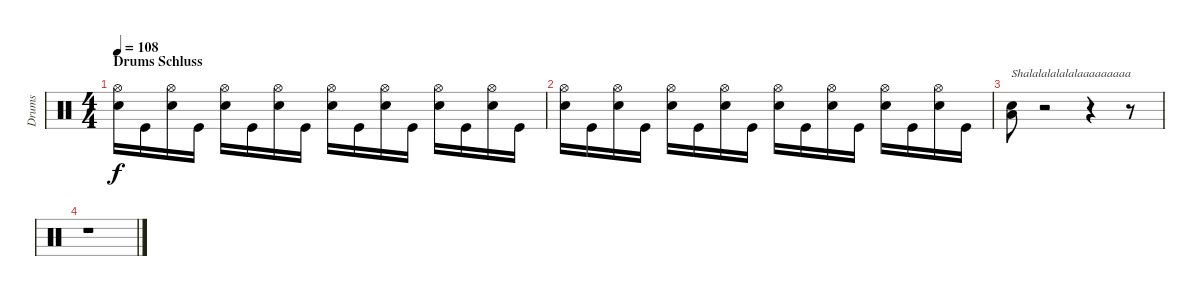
\track ("Drums" "Drums") {instrument percussion}
\staff {score}
\articulation defaults
\ts (4 4)
\section ("" "Drums Schluss")
\tempo 108
\clef neutral
\ks c
("Hi-Hat (open)" "Snare (hit) 2").16{dy f} "Kick (hit)".16 ("Hi-Hat (open)" "Snare (hit) 2").16 "Kick (hit)".16 ("Hi-Hat (open)" "Snare (hit) 2").16 "Kick (hit)".16 ("Hi-Hat (open)" "Snare (hit) 2").16 "Kick (hit)".16 ("Hi-Hat (open)" "Snare (hit) 2").16 "Kick (hit)".16 ("Hi-Hat (open)" "Snare (hit) 2").16 "Kick (hit)".16 ("Hi-Hat (open)" "Snare (hit) 2").16 "Kick (hit)".16 ("Hi-Hat (open)" "Snare (hit) 2").16 "Kick (hit)".16 |
("Hi-Hat (open)" "Snare (hit) 2").16 "Kick (hit)".16 ("Hi-Hat (open)" "Snare (hit) 2").16 "Kick (hit)".16 ("Hi-Hat (open)" "Snare (hit) 2").16 "Kick (hit)".16 ("Hi-Hat (open)" "Snare (hit) 2").16 "Kick (hit)".16 ("Hi-Hat (open)" "Snare (hit) 2").16 "Kick (hit)".16 ("Hi-Hat (open)" "Snare (hit) 2").16 "Kick (hit)".16 ("Hi-Hat (open)" "Snare (hit) 2").16 "Kick (hit)".16 ("Hi-Hat (open)" "Snare (hit) 2").16 "Kick (hit)".16 |
("Snare (hit) 2" "Low Floor Tom (hit)").8{txt "Shalalalalalalaaaaaaaaa"} r.2 r.4 r.8 |
r.1
